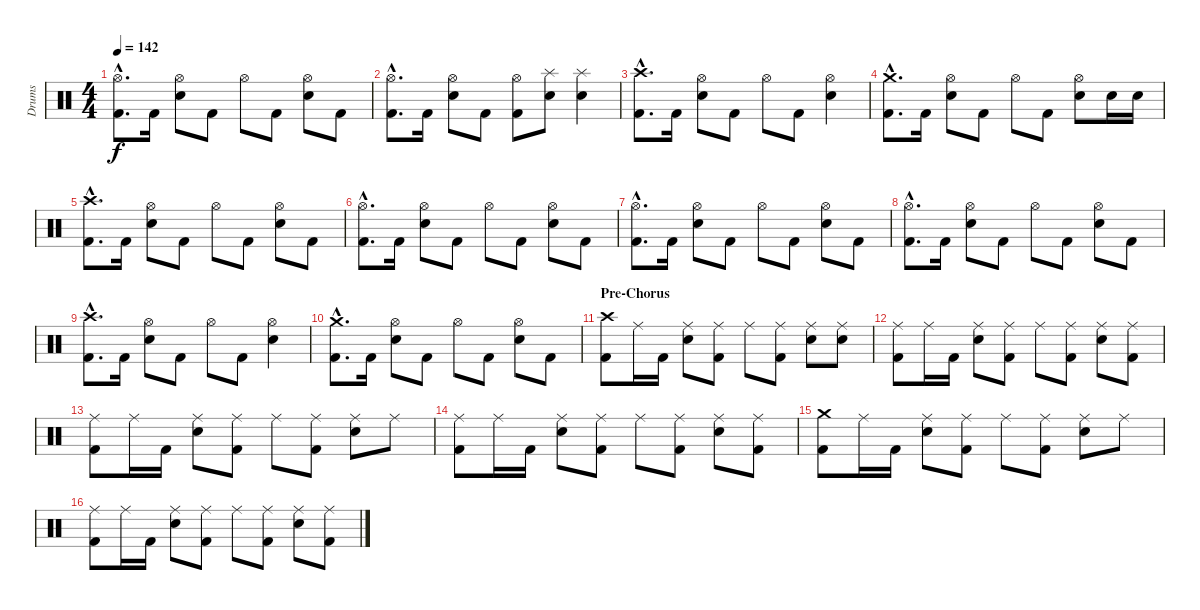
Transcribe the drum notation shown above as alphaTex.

\track ("Drums" "Drums") {instrument percussion}
\staff {score}
\articulation defaults
\ts (4 4)
\tempo 142
\clef neutral
\ks c
("Hi-Hat (open)"{hac} "Kick (hit) 2"{hac}).8{d dy f} "Kick (hit) 2".16 ("Hi-Hat (open)" "Electric Snare (hit)").8 "Kick (hit) 2".8 "Hi-Hat (open)".8 "Kick (hit) 2".8 ("Hi-Hat (open)" "Electric Snare (hit)").8 "Kick (hit) 2".8 |
("Hi-Hat (open)"{hac} "Kick (hit) 2"{hac}).8{d} "Kick (hit) 2".16 ("Hi-Hat (open)" "Electric Snare (hit)").8 "Kick (hit) 2".8 ("Hi-Hat (open)" "Kick (hit) 2").8 ("Splash (hit)" "Electric Snare (hit)").8 ("Splash (hit)" "Electric Snare (hit)").4 |
("Crash high (hit)"{hac} "Kick (hit) 2"{hac}).8{d} "Kick (hit) 2".16 ("Hi-Hat (open)" "Electric Snare (hit)").8 "Kick (hit) 2".8 "Hi-Hat (open)".8 "Kick (hit) 2".8 ("Hi-Hat (open)" "Electric Snare (hit)").4 |
("Crash medium (hit)"{hac} "Kick (hit) 2"{hac}).8{d} "Kick (hit) 2".16 ("Hi-Hat (open)" "Electric Snare (hit)").8 "Kick (hit) 2".8 "Hi-Hat (open)".8 "Kick (hit) 2".8 ("Hi-Hat (open)" "Electric Snare (hit)").8 "Electric Snare (hit)".16 "Electric Snare (hit)".16 |
("Crash high (hit)"{hac} "Kick (hit) 2"{hac}).8{d} "Kick (hit) 2".16 ("Hi-Hat (open)" "Electric Snare (hit)").8 "Kick (hit) 2".8 "Hi-Hat (open)".8 "Kick (hit) 2".8 ("Hi-Hat (open)" "Electric Snare (hit)").8 "Kick (hit) 2".8 |
("Hi-Hat (open)"{hac} "Kick (hit) 2"{hac}).8{d} "Kick (hit) 2".16 ("Hi-Hat (open)" "Electric Snare (hit)").8 "Kick (hit) 2".8 "Hi-Hat (open)".8 "Kick (hit) 2".8 ("Hi-Hat (open)" "Electric Snare (hit)").8 "Kick (hit) 2".8 |
("Hi-Hat (open)"{hac} "Kick (hit) 2"{hac}).8{d} "Kick (hit) 2".16 ("Hi-Hat (open)" "Electric Snare (hit)").8 "Kick (hit) 2".8 "Hi-Hat (open)".8 "Kick (hit) 2".8 ("Hi-Hat (open)" "Electric Snare (hit)").8 "Kick (hit) 2".8 |
("Hi-Hat (open)"{hac} "Kick (hit) 2"{hac}).8{d} "Kick (hit) 2".16 ("Hi-Hat (open)" "Electric Snare (hit)").8 "Kick (hit) 2".8 "Hi-Hat (open)".8 "Kick (hit) 2".8 ("Hi-Hat (open)" "Electric Snare (hit)").8 "Kick (hit) 2".8 |
("Crash high (hit)"{hac} "Kick (hit) 2"{hac}).8{d} "Kick (hit) 2".16 ("Hi-Hat (open)" "Electric Snare (hit)").8 "Kick (hit) 2".8 "Hi-Hat (open)".8 "Kick (hit) 2".8 ("Hi-Hat (open)" "Electric Snare (hit)").4 |
("Crash medium (hit)"{hac} "Kick (hit) 2"{hac}).8{d} "Kick (hit) 2".16 ("Hi-Hat (open)" "Electric Snare (hit)").8 "Kick (hit) 2".8 "Hi-Hat (open)".8 "Kick (hit) 2".8 ("Hi-Hat (open)" "Electric Snare (hit)").8 "Kick (hit) 2".8 |
\section ("" "Pre-Chorus")
("Crash high (hit)" "Kick (hit) 2").8 "Ride (middle)".16 "Kick (hit) 2".16 ("Ride (middle)" "Electric Snare (hit)").8 ("Ride (middle)" "Kick (hit) 2").8 "Ride (middle)".8 ("Ride (middle)" "Kick (hit) 2").8 ("Ride (middle)" "Electric Snare (hit)").8 ("Ride (middle)" "Electric Snare (hit)").8 |
("Ride (middle)" "Kick (hit) 2").8 "Ride (middle)".16 "Kick (hit) 2".16 ("Ride (middle)" "Electric Snare (hit)").8 ("Ride (middle)" "Kick (hit) 2").8 "Ride (middle)".8 ("Ride (middle)" "Kick (hit) 2").8 ("Ride (middle)" "Electric Snare (hit)").8 ("Ride (middle)" "Kick (hit) 2").8 |
("Ride (middle)" "Kick (hit) 2").8 "Ride (middle)".16 "Kick (hit) 2".16 ("Ride (middle)" "Electric Snare (hit)").8 ("Ride (middle)" "Kick (hit) 2").8 "Ride (middle)".8 ("Ride (middle)" "Kick (hit) 2").8 ("Ride (middle)" "Electric Snare (hit)").8 "Ride (middle)".8 |
("Ride (middle)" "Kick (hit) 2").8 "Ride (middle)".16 "Kick (hit) 2".16 ("Ride (middle)" "Electric Snare (hit)").8 ("Ride (middle)" "Kick (hit) 2").8 "Ride (middle)".8 ("Ride (middle)" "Kick (hit) 2").8 ("Ride (middle)" "Electric Snare (hit)").8 ("Ride (middle)" "Kick (hit) 2").8 |
("Crash medium (hit)" "Kick (hit) 2").8 "Ride (middle)".16 "Kick (hit) 2".16 ("Ride (middle)" "Electric Snare (hit)").8 ("Ride (middle)" "Kick (hit) 2").8 "Ride (middle)".8 ("Ride (middle)" "Kick (hit) 2").8 ("Ride (middle)" "Electric Snare (hit)").8 "Ride (middle)".8 |
("Ride (middle)" "Kick (hit) 2").8 "Ride (middle)".16 "Kick (hit) 2".16 ("Ride (middle)" "Electric Snare (hit)").8 ("Ride (middle)" "Kick (hit) 2").8 "Ride (middle)".8 ("Ride (middle)" "Kick (hit) 2").8 ("Ride (middle)" "Electric Snare (hit)").8 ("Ride (middle)" "Kick (hit) 2").8
